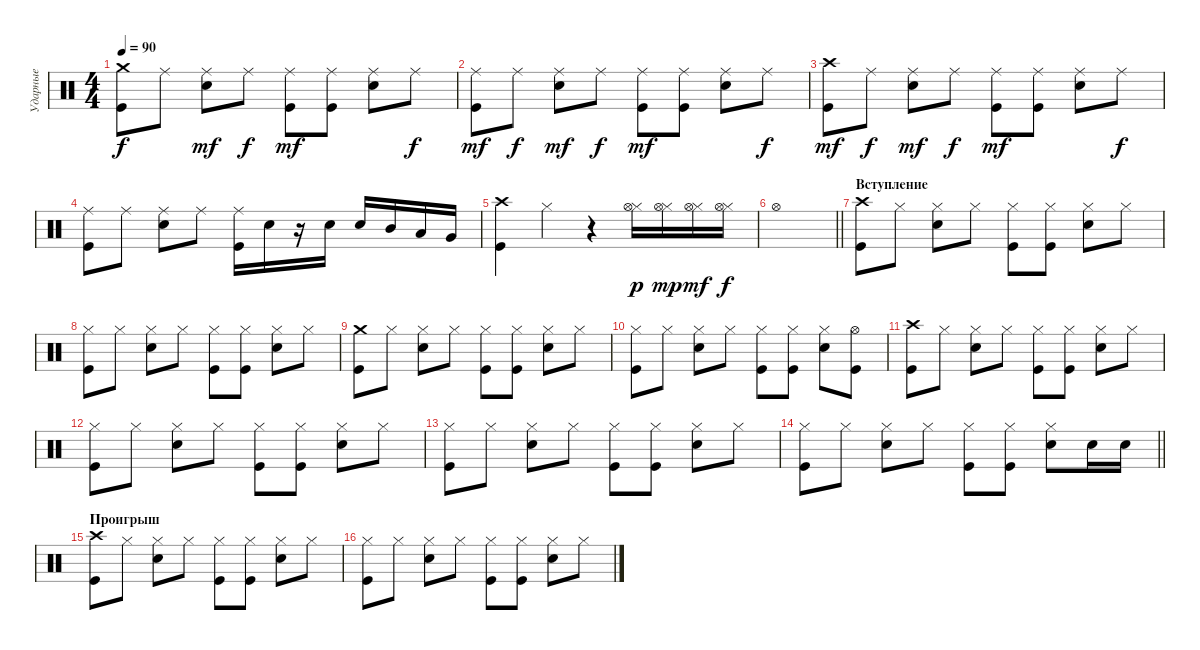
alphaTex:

\track ("Ударные" "Ударные") {instrument percussion}
\staff {score}
\articulation defaults
\ts (4 4)
\tempo 90
\clef neutral
\ks c
("Crash medium (hit)" "Kick (hit)").8{dy f} "Ride (middle)".8 ("Ride (middle)" "Snare (hit) 2").8{dy mf} "Ride (middle)".8{dy f} ("Ride (middle)" "Kick (hit)").8{dy mf} ("Ride (middle)" "Kick (hit)").8 ("Ride (middle)" "Snare (hit) 2").8 "Ride (middle)".8{dy f} |
("Ride (middle)" "Kick (hit)").8{dy mf} "Ride (middle)".8{dy f} ("Ride (middle)" "Snare (hit) 2").8{dy mf} "Ride (middle)".8{dy f} ("Ride (middle)" "Kick (hit)").8{dy mf} ("Ride (middle)" "Kick (hit)").8 ("Ride (middle)" "Snare (hit) 2").8 "Ride (middle)".8{dy f} |
("Crash high (hit)" "Kick (hit)").8{dy mf} "Ride (middle)".8{dy f} ("Ride (middle)" "Snare (hit) 2").8{dy mf} "Ride (middle)".8{dy f} ("Ride (middle)" "Kick (hit)").8{dy mf} ("Ride (middle)" "Kick (hit)").8 ("Ride (middle)" "Snare (hit) 2").8 "Ride (middle)".8{dy f} |
("Ride (middle)" "Kick (hit)").8 "Ride (middle)".8 ("Ride (middle)" "Snare (hit) 2").8 "Ride (middle)".8 ("Ride (middle)" "Kick (hit)").16 "Snare (hit) 2".16 r.16 "Snare (hit) 2".16 "Snare (hit) 2".16 "Mid Tom (hit)".16 "Low Tom (hit)".16 "Very Low Tom (hit)".16 |
("Crash high (hit)" "Kick (hit)").4 "Hi-Hat (closed)".4 r.4 ("Hi-Hat (closed)" "Hi-Hat (open)").16{dy p} ("Hi-Hat (closed)" "Hi-Hat (open)").16{dy mp} ("Hi-Hat (closed)" "Hi-Hat (open)").16{dy mf} ("Hi-Hat (closed)" "Hi-Hat (open)").16{dy f} |
\barLineRight lightlight "Hi-Hat (open)".1
|
\section ("" "Вступление")
("Kick (hit)" "Crash high (hit)").8 "Hi-Hat (closed)".8 ("Hi-Hat (closed)" "Snare (hit) 2").8 "Hi-Hat (closed)".8 ("Hi-Hat (closed)" "Kick (hit)").8 ("Hi-Hat (closed)" "Kick (hit)").8 ("Hi-Hat (closed)" "Snare (hit) 2").8 "Hi-Hat (closed)".8 |
("Kick (hit)" "Hi-Hat (closed)").8 "Hi-Hat (closed)".8 ("Hi-Hat (closed)" "Snare (hit) 2").8 "Hi-Hat (closed)".8 ("Hi-Hat (closed)" "Kick (hit)").8 ("Hi-Hat (closed)" "Kick (hit)").8 ("Hi-Hat (closed)" "Snare (hit) 2").8 "Hi-Hat (closed)".8 |
("Kick (hit)" "Crash medium (hit)").8 "Hi-Hat (closed)".8 ("Hi-Hat (closed)" "Snare (hit) 2").8 "Hi-Hat (closed)".8 ("Hi-Hat (closed)" "Kick (hit)").8 ("Hi-Hat (closed)" "Kick (hit)").8 ("Hi-Hat (closed)" "Snare (hit) 2").8 "Hi-Hat (closed)".8 |
("Kick (hit)" "Hi-Hat (closed)").8 "Hi-Hat (closed)".8 ("Hi-Hat (closed)" "Snare (hit) 2").8 "Hi-Hat (closed)".8 ("Hi-Hat (closed)" "Kick (hit)").8 ("Hi-Hat (closed)" "Kick (hit)").8 ("Hi-Hat (closed)" "Snare (hit) 2").8 ("Hi-Hat (open)" "Kick (hit)").8 |
("Kick (hit)" "Crash high (hit)").8 "Hi-Hat (closed)".8 ("Hi-Hat (closed)" "Snare (hit) 2").8 "Hi-Hat (closed)".8 ("Hi-Hat (closed)" "Kick (hit)").8 ("Hi-Hat (closed)" "Kick (hit)").8 ("Hi-Hat (closed)" "Snare (hit) 2").8 "Hi-Hat (closed)".8 |
("Kick (hit)" "Hi-Hat (closed)").8 "Hi-Hat (closed)".8 ("Hi-Hat (closed)" "Snare (hit) 2").8 "Hi-Hat (closed)".8 ("Hi-Hat (closed)" "Kick (hit)").8 ("Hi-Hat (closed)" "Kick (hit)").8 ("Hi-Hat (closed)" "Snare (hit) 2").8 "Hi-Hat (closed)".8 |
("Kick (hit)" "Hi-Hat (closed)").8 "Hi-Hat (closed)".8 ("Hi-Hat (closed)" "Snare (hit) 2").8 "Hi-Hat (closed)".8 ("Hi-Hat (closed)" "Kick (hit)").8 ("Hi-Hat (closed)" "Kick (hit)").8 ("Hi-Hat (closed)" "Snare (hit) 2").8 "Hi-Hat (closed)".8 |
\barLineRight lightlight
("Kick (hit)" "Hi-Hat (closed)").8 "Hi-Hat (closed)".8 ("Hi-Hat (closed)" "Snare (hit) 2").8 "Hi-Hat (closed)".8 ("Hi-Hat (closed)" "Kick (hit)").8 ("Hi-Hat (closed)" "Kick (hit)").8 ("Hi-Hat (closed)" "Snare (hit) 2").8 "Snare (hit) 2".16 "Snare (hit) 2".16 |
\section ("" "Проигрыш")
("Kick (hit)" "Crash high (hit)").8 "Hi-Hat (closed)".8 ("Hi-Hat (closed)" "Snare (hit) 2").8 "Hi-Hat (closed)".8 ("Hi-Hat (closed)" "Kick (hit)").8 ("Hi-Hat (closed)" "Kick (hit)").8 ("Hi-Hat (closed)" "Snare (hit) 2").8 "Hi-Hat (closed)".8 |
("Kick (hit)" "Hi-Hat (closed)").8 "Hi-Hat (closed)".8 ("Hi-Hat (closed)" "Snare (hit) 2").8 "Hi-Hat (closed)".8 ("Hi-Hat (closed)" "Kick (hit)").8 ("Hi-Hat (closed)" "Kick (hit)").8 ("Hi-Hat (closed)" "Snare (hit) 2").8 "Hi-Hat (closed)".8
